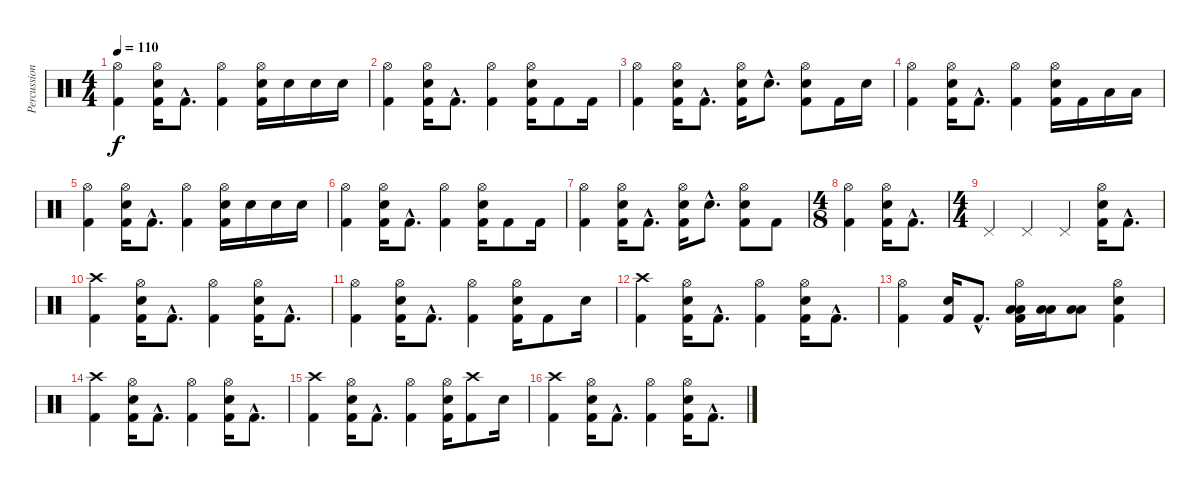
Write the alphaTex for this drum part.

\track ("Percussions" "Percussion") {instrument percussion}
\staff {score}
\articulation defaults
\ts (4 4)
\tempo 110
\clef neutral
\ks c
("Hi-Hat (open)" "Kick (hit) 2").4{dy f} ("Hi-Hat (open)" "Electric Snare (hit)" "Kick (hit) 2").16 "Kick (hit) 2"{hac}.8{d} ("Hi-Hat (open)" "Kick (hit) 2").4 ("Hi-Hat (open)" "Electric Snare (hit)" "Kick (hit) 2").16 "Electric Snare (hit)".16 "Electric Snare (hit)".16 "Electric Snare (hit)".16 |
("Hi-Hat (open)" "Kick (hit) 2").4 ("Hi-Hat (open)" "Electric Snare (hit)" "Kick (hit) 2").16 "Kick (hit) 2"{hac}.8{d} ("Hi-Hat (open)" "Kick (hit) 2").4 ("Hi-Hat (open)" "Electric Snare (hit)" "Kick (hit) 2").16 "Kick (hit) 2".8 "Kick (hit) 2".16 |
("Hi-Hat (open)" "Kick (hit) 2").4 ("Hi-Hat (open)" "Electric Snare (hit)" "Kick (hit) 2").16 "Kick (hit) 2"{hac}.8{d} ("Hi-Hat (open)" "Electric Snare (hit)" "Kick (hit) 2").16 "Electric Snare (hit)"{hac}.8{d} ("Hi-Hat (open)" "Electric Snare (hit)" "Kick (hit) 2").8 "Kick (hit) 2".16 "Electric Snare (hit)".16 |
("Hi-Hat (open)" "Kick (hit) 2").4 ("Hi-Hat (open)" "Electric Snare (hit)" "Kick (hit) 2").16 "Kick (hit) 2"{hac}.8{d} ("Hi-Hat (open)" "Kick (hit) 2").4 ("Hi-Hat (open)" "Electric Snare (hit)" "Kick (hit) 2").16 "Kick (hit) 2".16 "Low Tom (hit)".16 "Low Tom (hit)".16 |
("Hi-Hat (open)" "Kick (hit) 2").4 ("Hi-Hat (open)" "Electric Snare (hit)" "Kick (hit) 2").16 "Kick (hit) 2"{hac}.8{d} ("Hi-Hat (open)" "Kick (hit) 2").4 ("Hi-Hat (open)" "Electric Snare (hit)" "Kick (hit) 2").16 "Electric Snare (hit)".16 "Electric Snare (hit)".16 "Electric Snare (hit)".16 |
("Hi-Hat (open)" "Kick (hit) 2").4 ("Hi-Hat (open)" "Electric Snare (hit)" "Kick (hit) 2").16 "Kick (hit) 2"{hac}.8{d} ("Hi-Hat (open)" "Kick (hit) 2").4 ("Hi-Hat (open)" "Electric Snare (hit)" "Kick (hit) 2").16 "Kick (hit) 2".8 "Kick (hit) 2".16 |
("Hi-Hat (open)" "Kick (hit) 2").4 ("Hi-Hat (open)" "Electric Snare (hit)" "Kick (hit) 2").16 "Kick (hit) 2"{hac}.8{d} ("Hi-Hat (open)" "Electric Snare (hit)" "Kick (hit) 2").16 "Electric Snare (hit)"{hac}.8{d} ("Hi-Hat (open)" "Electric Snare (hit)" "Kick (hit) 2").8 "Kick (hit) 2".8 |
\ts (4 8)
("Hi-Hat (open)" "Kick (hit) 2").4 ("Hi-Hat (open)" "Electric Snare (hit)" "Kick (hit) 2").16 "Kick (hit) 2"{hac}.8{d} |
\ts (4 4)
"Pedal Hi-Hat (hit)".4 "Pedal Hi-Hat (hit)".4 "Pedal Hi-Hat (hit)".4 ("Hi-Hat (open)" "Electric Snare (hit)" "Kick (hit) 2").16 "Kick (hit) 2"{hac}.8{d} |
("Crash high (hit)" "Kick (hit) 2").4 ("Hi-Hat (open)" "Electric Snare (hit)" "Kick (hit) 2").16 "Kick (hit) 2"{hac}.8{d} ("Hi-Hat (open)" "Kick (hit) 2").4 ("Hi-Hat (open)" "Electric Snare (hit)" "Kick (hit) 2").16 "Kick (hit) 2"{hac}.8{d} |
("Hi-Hat (open)" "Kick (hit) 2").4 ("Hi-Hat (open)" "Electric Snare (hit)" "Kick (hit) 2").16 "Kick (hit) 2"{hac}.8{d} ("Hi-Hat (open)" "Kick (hit) 2").4 ("Hi-Hat (open)" "Electric Snare (hit)" "Kick (hit) 2").16 "Kick (hit) 2".8 "Electric Snare (hit)".16 |
("Crash high (hit)" "Kick (hit) 2").4 ("Hi-Hat (open)" "Electric Snare (hit)" "Kick (hit) 2").16 "Kick (hit) 2"{hac}.8{d} ("Hi-Hat (open)" "Kick (hit) 2").4 ("Hi-Hat (open)" "Electric Snare (hit)" "Kick (hit) 2").16 "Kick (hit) 2"{hac}.8{d} |
("Hi-Hat (open)" "Kick (hit) 2").4 ("Electric Snare (hit)" "Kick (hit) 2").16 "Kick (hit) 2"{hac}.8{d} ("Hi-Hat (open)" "Low Tom (hit)" "Low Tom (hit)" "Kick (hit) 2").16 ("Low Tom (hit)" "Low Tom (hit)").16 ("Low Tom (hit)" "Low Tom (hit)").8 ("Hi-Hat (open)" "Electric Snare (hit)" "Kick (hit) 2").4 |
("Crash high (hit)" "Kick (hit) 2").4 ("Hi-Hat (open)" "Electric Snare (hit)" "Kick (hit) 2").16 "Kick (hit) 2"{hac}.8{d} ("Hi-Hat (open)" "Kick (hit) 2").4 ("Hi-Hat (open)" "Electric Snare (hit)" "Kick (hit) 2").16 "Kick (hit) 2"{hac}.8{d} |
("Crash high (hit)" "Kick (hit) 2").4 ("Hi-Hat (open)" "Electric Snare (hit)" "Kick (hit) 2").16 "Kick (hit) 2"{hac}.8{d} ("Hi-Hat (open)" "Kick (hit) 2").4 ("Hi-Hat (open)" "Electric Snare (hit)" "Kick (hit) 2").16 ("Crash high (hit)" "Kick (hit) 2").8 "Electric Snare (hit)".16 |
("Crash high (hit)" "Kick (hit) 2").4 ("Hi-Hat (open)" "Electric Snare (hit)" "Kick (hit) 2").16 "Kick (hit) 2"{hac}.8{d} ("Hi-Hat (open)" "Kick (hit) 2").4 ("Hi-Hat (open)" "Electric Snare (hit)" "Kick (hit) 2").16 "Kick (hit) 2"{hac}.8{d}
